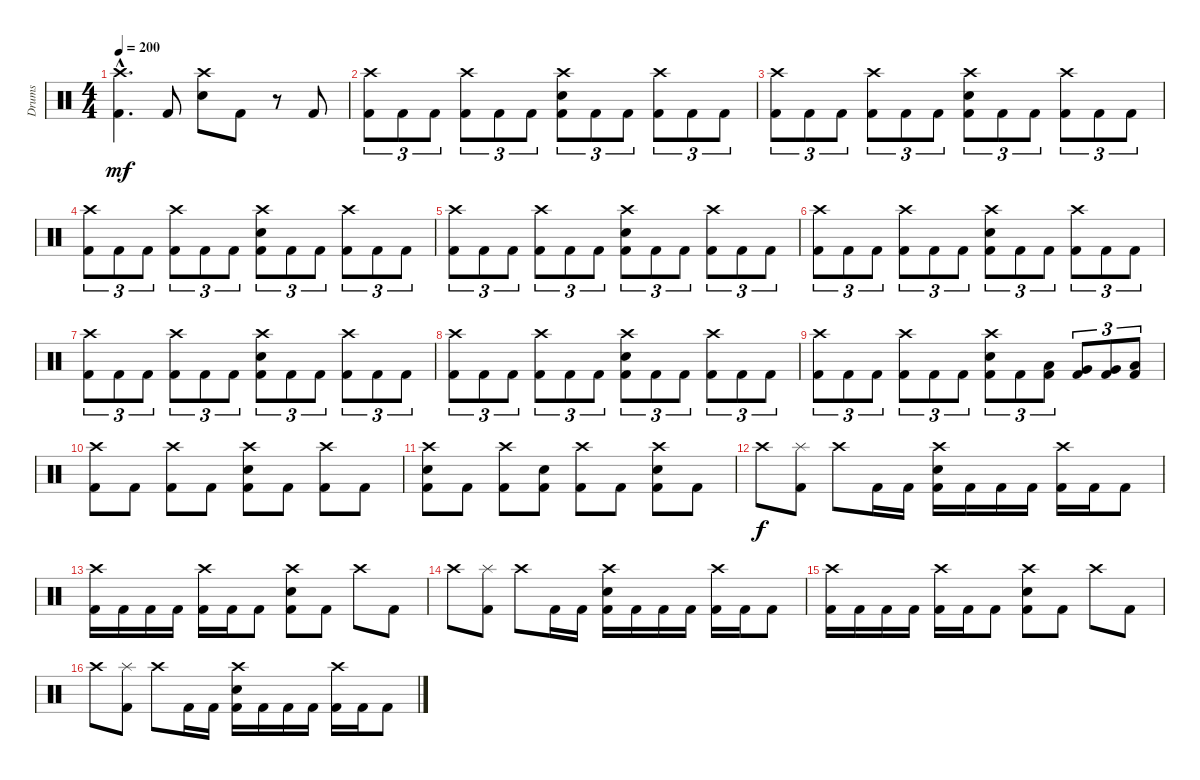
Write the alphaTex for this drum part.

\track ("Drums" "Drums") {instrument percussion}
\staff {score}
\articulation defaults
\ts (4 4)
\tempo 200
\clef neutral
\ks c
("Crash high (hit)"{hac} "Kick (hit) 2"{hac}).4{d dy mf} "Kick (hit) 2".8 ("Crash high (hit)" "Electric Snare (hit)").8 "Kick (hit) 2".8 r.8 "Kick (hit) 2".8 |
("Crash high (hit)" "Kick (hit) 2").8{tu (3 2)} "Kick (hit) 2".8{tu (3 2)} "Kick (hit) 2".8{tu (3 2)} ("Crash high (hit)" "Kick (hit) 2").8{tu (3 2)} "Kick (hit) 2".8{tu (3 2)} "Kick (hit) 2".8{tu (3 2)} ("Crash high (hit)" "Electric Snare (hit)" "Kick (hit) 2").8{tu (3 2)} "Kick (hit) 2".8{tu (3 2)} "Kick (hit) 2".8{tu (3 2)} ("Crash high (hit)" "Kick (hit) 2").8{tu (3 2)} "Kick (hit) 2".8{tu (3 2)} "Kick (hit) 2".8{tu (3 2)} |
("Crash high (hit)" "Kick (hit) 2").8{tu (3 2)} "Kick (hit) 2".8{tu (3 2)} "Kick (hit) 2".8{tu (3 2)} ("Crash high (hit)" "Kick (hit) 2").8{tu (3 2)} "Kick (hit) 2".8{tu (3 2)} "Kick (hit) 2".8{tu (3 2)} ("Crash high (hit)" "Electric Snare (hit)" "Kick (hit) 2").8{tu (3 2)} "Kick (hit) 2".8{tu (3 2)} "Kick (hit) 2".8{tu (3 2)} ("Crash high (hit)" "Kick (hit) 2").8{tu (3 2)} "Kick (hit) 2".8{tu (3 2)} "Kick (hit) 2".8{tu (3 2)} |
("Crash high (hit)" "Kick (hit) 2").8{tu (3 2)} "Kick (hit) 2".8{tu (3 2)} "Kick (hit) 2".8{tu (3 2)} ("Crash high (hit)" "Kick (hit) 2").8{tu (3 2)} "Kick (hit) 2".8{tu (3 2)} "Kick (hit) 2".8{tu (3 2)} ("Crash high (hit)" "Electric Snare (hit)" "Kick (hit) 2").8{tu (3 2)} "Kick (hit) 2".8{tu (3 2)} "Kick (hit) 2".8{tu (3 2)} ("Crash high (hit)" "Kick (hit) 2").8{tu (3 2)} "Kick (hit) 2".8{tu (3 2)} "Kick (hit) 2".8{tu (3 2)} |
("Crash high (hit)" "Kick (hit) 2").8{tu (3 2)} "Kick (hit) 2".8{tu (3 2)} "Kick (hit) 2".8{tu (3 2)} ("Crash high (hit)" "Kick (hit) 2").8{tu (3 2)} "Kick (hit) 2".8{tu (3 2)} "Kick (hit) 2".8{tu (3 2)} ("Crash high (hit)" "Electric Snare (hit)" "Kick (hit) 2").8{tu (3 2)} "Kick (hit) 2".8{tu (3 2)} "Kick (hit) 2".8{tu (3 2)} ("Crash high (hit)" "Kick (hit) 2").8{tu (3 2)} "Kick (hit) 2".8{tu (3 2)} "Kick (hit) 2".8{tu (3 2)} |
("Crash high (hit)" "Kick (hit) 2").8{tu (3 2)} "Kick (hit) 2".8{tu (3 2)} "Kick (hit) 2".8{tu (3 2)} ("Crash high (hit)" "Kick (hit) 2").8{tu (3 2)} "Kick (hit) 2".8{tu (3 2)} "Kick (hit) 2".8{tu (3 2)} ("Crash high (hit)" "Electric Snare (hit)" "Kick (hit) 2").8{tu (3 2)} "Kick (hit) 2".8{tu (3 2)} "Kick (hit) 2".8{tu (3 2)} ("Crash high (hit)" "Kick (hit) 2").8{tu (3 2)} "Kick (hit) 2".8{tu (3 2)} "Kick (hit) 2".8{tu (3 2)} |
("Crash high (hit)" "Kick (hit) 2").8{tu (3 2)} "Kick (hit) 2".8{tu (3 2)} "Kick (hit) 2".8{tu (3 2)} ("Crash high (hit)" "Kick (hit) 2").8{tu (3 2)} "Kick (hit) 2".8{tu (3 2)} "Kick (hit) 2".8{tu (3 2)} ("Crash high (hit)" "Electric Snare (hit)" "Kick (hit) 2").8{tu (3 2)} "Kick (hit) 2".8{tu (3 2)} "Kick (hit) 2".8{tu (3 2)} ("Crash high (hit)" "Kick (hit) 2").8{tu (3 2)} "Kick (hit) 2".8{tu (3 2)} "Kick (hit) 2".8{tu (3 2)} |
("Crash high (hit)" "Kick (hit) 2").8{tu (3 2)} "Kick (hit) 2".8{tu (3 2)} "Kick (hit) 2".8{tu (3 2)} ("Crash high (hit)" "Kick (hit) 2").8{tu (3 2)} "Kick (hit) 2".8{tu (3 2)} "Kick (hit) 2".8{tu (3 2)} ("Crash high (hit)" "Electric Snare (hit)" "Kick (hit) 2").8{tu (3 2)} "Kick (hit) 2".8{tu (3 2)} "Kick (hit) 2".8{tu (3 2)} ("Crash high (hit)" "Kick (hit) 2").8{tu (3 2)} "Kick (hit) 2".8{tu (3 2)} "Kick (hit) 2".8{tu (3 2)} |
("Crash high (hit)" "Kick (hit) 2").8{tu (3 2)} "Kick (hit) 2".8{tu (3 2)} "Kick (hit) 2".8{tu (3 2)} ("Crash high (hit)" "Kick (hit) 2").8{tu (3 2)} "Kick (hit) 2".8{tu (3 2)} "Kick (hit) 2".8{tu (3 2)} ("Crash high (hit)" "Electric Snare (hit)" "Kick (hit) 2").8{tu (3 2)} "Kick (hit) 2".8{tu (3 2)} ("Low Tom (hit)" "Kick (hit) 2").8{tu (3 2)} ("Very Low Tom (hit)" "Kick (hit) 2").8{tu (3 2)} ("Very Low Tom (hit)" "Kick (hit) 2").8{tu (3 2)} ("Low Floor Tom (hit)" "Kick (hit) 2").8{tu (3 2)} |
("Crash high (hit)" "Kick (hit) 2").8 "Kick (hit) 2".8 ("Crash high (hit)" "Kick (hit) 2").8 "Kick (hit) 2".8 ("Crash high (hit)" "Electric Snare (hit)" "Kick (hit) 2").8 "Kick (hit) 2".8 ("Crash high (hit)" "Kick (hit) 2").8 "Kick (hit) 2".8 |
("Crash high (hit)" "Electric Snare (hit)" "Kick (hit) 2").8 "Kick (hit) 2".8 ("Crash high (hit)" "Kick (hit) 2").8 ("Electric Snare (hit)" "Kick (hit) 2").8 ("Crash high (hit)" "Kick (hit) 2").8 "Kick (hit) 2".8 ("Crash high (hit)" "Electric Snare (hit)" "Kick (hit) 2").8 "Kick (hit) 2".8 |
"Crash high (hit)".8{dy f} ("Splash (hit)" "Kick (hit) 2").8 "Crash high (hit)".8 "Kick (hit) 2".16 "Kick (hit) 2".16 ("Crash high (hit)" "Electric Snare (hit)" "Kick (hit) 2").16 "Kick (hit) 2".16 "Kick (hit) 2".16 "Kick (hit) 2".16 ("Crash high (hit)" "Kick (hit) 2").16 "Kick (hit) 2".16 "Kick (hit) 2".8 |
("Crash high (hit)" "Kick (hit) 2").16 "Kick (hit) 2".16 "Kick (hit) 2".16 "Kick (hit) 2".16 ("Crash high (hit)" "Kick (hit) 2").16 "Kick (hit) 2".16 "Kick (hit) 2".8 ("Crash high (hit)" "Electric Snare (hit)" "Kick (hit) 2").8 "Kick (hit) 2".8 "Crash high (hit)".8 "Kick (hit) 2".8 |
"Crash high (hit)".8 ("Splash (hit)" "Kick (hit) 2").8 "Crash high (hit)".8 "Kick (hit) 2".16 "Kick (hit) 2".16 ("Crash high (hit)" "Electric Snare (hit)" "Kick (hit) 2").16 "Kick (hit) 2".16 "Kick (hit) 2".16 "Kick (hit) 2".16 ("Crash high (hit)" "Kick (hit) 2").16 "Kick (hit) 2".16 "Kick (hit) 2".8 |
("Crash high (hit)" "Kick (hit) 2").16 "Kick (hit) 2".16 "Kick (hit) 2".16 "Kick (hit) 2".16 ("Crash high (hit)" "Kick (hit) 2").16 "Kick (hit) 2".16 "Kick (hit) 2".8 ("Crash high (hit)" "Electric Snare (hit)" "Kick (hit) 2").8 "Kick (hit) 2".8 "Crash high (hit)".8 "Kick (hit) 2".8 |
"Crash high (hit)".8 ("Splash (hit)" "Kick (hit) 2").8 "Crash high (hit)".8 "Kick (hit) 2".16 "Kick (hit) 2".16 ("Crash high (hit)" "Electric Snare (hit)" "Kick (hit) 2").16 "Kick (hit) 2".16 "Kick (hit) 2".16 "Kick (hit) 2".16 ("Crash high (hit)" "Kick (hit) 2").16 "Kick (hit) 2".16 "Kick (hit) 2".8
